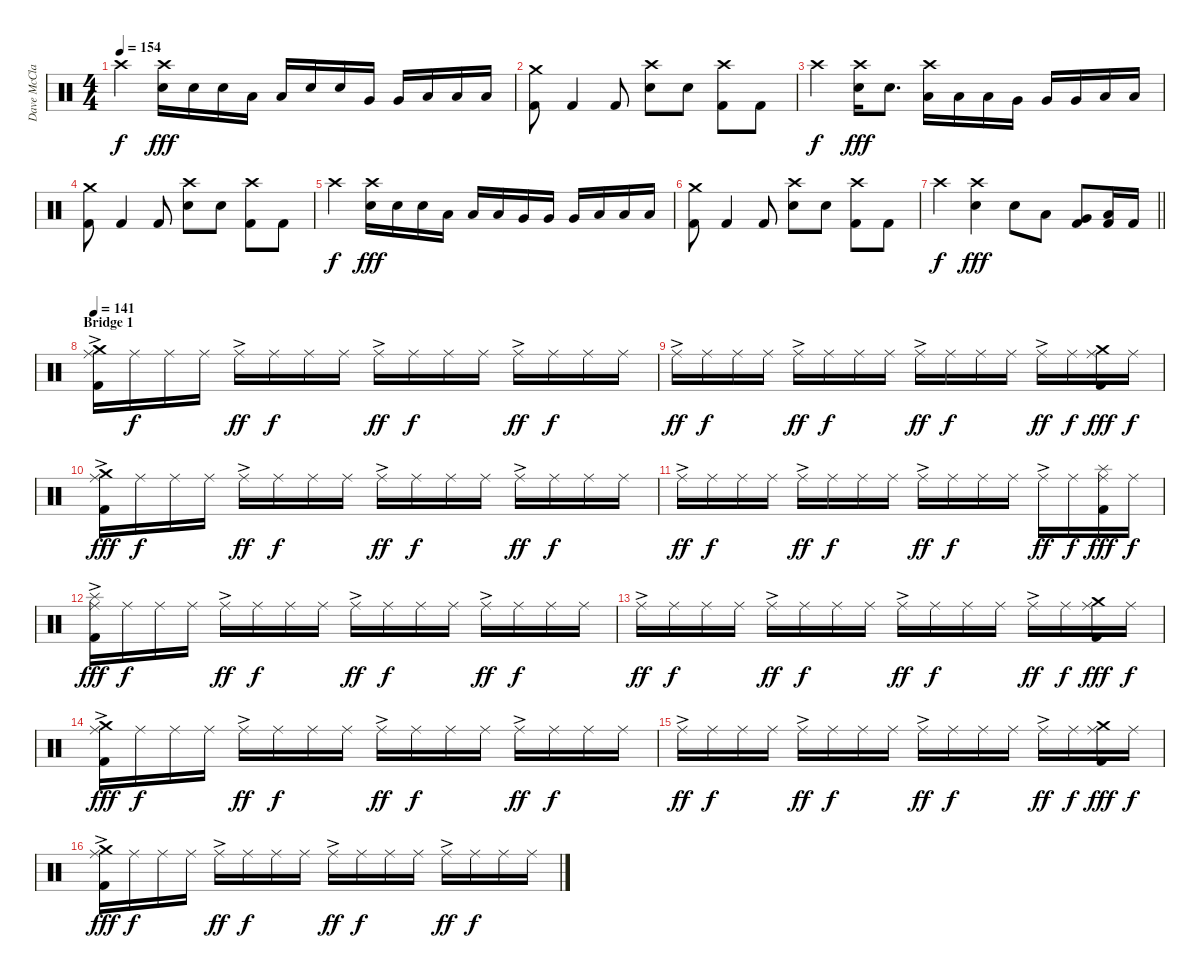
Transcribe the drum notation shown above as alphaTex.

\track ("Dave McClain" "Dave McCla") {instrument percussion}
\staff {score}
\articulation defaults
\ts (4 4)
\tempo 154
\clef neutral
\ks c "Crash high (hit)".4{dy f}
("Crash high (hit)" "Electric Snare (hit)").16{dy fff} "Electric Snare (hit)".16 "Electric Snare (hit)".16 "Low Tom (hit)".16 "Low Tom (hit)".16 "Electric Snare (hit)".16 "Electric Snare (hit)".16 "Very Low Tom (hit)".16 "Very Low Tom (hit)".16 "Low Floor Tom (hit)".16 "Low Floor Tom (hit)".16 "Low Floor Tom (hit)".16 |
("Crash medium (hit)" "Kick (hit) 2").8 "Kick (hit) 2".4 "Kick (hit) 2".8 ("Crash high (hit)" "Electric Snare (hit)").8 "Electric Snare (hit)".8 ("Crash high (hit)" "Kick (hit) 2").8 "Kick (hit) 2".8 |
"Crash high (hit)".4{dy f} ("Crash high (hit)" "Electric Snare (hit)").16{dy fff} "Electric Snare (hit)".8{d} ("Crash high (hit)" "Low Tom (hit)").16 "Low Tom (hit)".16 "Low Tom (hit)".16 "Very Low Tom (hit)".16 "Very Low Tom (hit)".16 "Very Low Tom (hit)".16 "Low Floor Tom (hit)".16 "Low Floor Tom (hit)".16 |
("Crash medium (hit)" "Kick (hit) 2").8 "Kick (hit) 2".4 "Kick (hit) 2".8 ("Crash high (hit)" "Electric Snare (hit)").8 "Electric Snare (hit)".8 ("Crash high (hit)" "Kick (hit) 2").8 "Kick (hit) 2".8 |
"Crash high (hit)".4{dy f} ("Crash high (hit)" "Electric Snare (hit)").16{dy fff} "Electric Snare (hit)".16 "Electric Snare (hit)".16 "Low Tom (hit)".16 "Low Tom (hit)".16 "Low Tom (hit)".16 "Very Low Tom (hit)".16 "Very Low Tom (hit)".16 "Very Low Tom (hit)".16 "Low Floor Tom (hit)".16 "Low Floor Tom (hit)".16 "Low Floor Tom (hit)".16 |
("Crash medium (hit)" "Kick (hit) 2").8 "Kick (hit) 2".4 "Kick (hit) 2".8 ("Crash high (hit)" "Electric Snare (hit)").8 "Electric Snare (hit)".8 ("Crash high (hit)" "Kick (hit) 2").8 "Kick (hit) 2".8 |
\barLineRight lightlight "Crash high (hit)".4{dy f}
("Crash high (hit)" "Electric Snare (hit)").4{dy fff} "Electric Snare (hit)".8 "Low Tom (hit)".8 ("Very Low Tom (hit)" "Kick (hit) 2").8 ("Low Floor Tom (hit)" "Kick (hit) 2").16 "Kick (hit) 2".16 |
\section ("" "Bridge 1")
\tempo 141
("Ride (middle)"{ac} "Crash medium (hit)" "Kick (hit) 2").16 "Ride (middle)".16{dy f} "Ride (middle)".16 "Ride (middle)".16 "Ride (middle)"{ac}.16{dy ff} "Ride (middle)".16{dy f} "Ride (middle)".16 "Ride (middle)".16 "Ride (middle)"{ac}.16{dy ff} "Ride (middle)".16{dy f} "Ride (middle)".16 "Ride (middle)".16 "Ride (middle)"{ac}.16{dy ff} "Ride (middle)".16{dy f} "Ride (middle)".16 "Ride (middle)".16 |
"Ride (middle)"{ac}.16{dy ff} "Ride (middle)".16{dy f} "Ride (middle)".16 "Ride (middle)".16 "Ride (middle)"{ac}.16{dy ff} "Ride (middle)".16{dy f} "Ride (middle)".16 "Ride (middle)".16 "Ride (middle)"{ac}.16{dy ff} "Ride (middle)".16{dy f} "Ride (middle)".16 "Ride (middle)".16 "Ride (middle)"{ac}.16{dy ff} "Ride (middle)".16{dy f} ("Ride (middle)" "Crash medium (hit)" "Kick (hit) 2").16{dy fff} "Ride (middle)".16{dy f} |
("Ride (middle)"{ac} "Crash medium (hit)" "Kick (hit) 2").16{dy fff} "Ride (middle)".16{dy f} "Ride (middle)".16 "Ride (middle)".16 "Ride (middle)"{ac}.16{dy ff} "Ride (middle)".16{dy f} "Ride (middle)".16 "Ride (middle)".16 "Ride (middle)"{ac}.16{dy ff} "Ride (middle)".16{dy f} "Ride (middle)".16 "Ride (middle)".16 "Ride (middle)"{ac}.16{dy ff} "Ride (middle)".16{dy f} "Ride (middle)".16 "Ride (middle)".16 |
"Ride (middle)"{ac}.16{dy ff} "Ride (middle)".16{dy f} "Ride (middle)".16 "Ride (middle)".16 "Ride (middle)"{ac}.16{dy ff} "Ride (middle)".16{dy f} "Ride (middle)".16 "Ride (middle)".16 "Ride (middle)"{ac}.16{dy ff} "Ride (middle)".16{dy f} "Ride (middle)".16 "Ride (middle)".16 "Ride (middle)"{ac}.16{dy ff} "Ride (middle)".16{dy f} ("Ride (middle)" "Splash (hit)" "Kick (hit) 2").16{dy fff} "Ride (middle)".16{dy f} |
("Ride (middle)"{ac} "Splash (hit)" "Kick (hit) 2").16{dy fff} "Ride (middle)".16{dy f} "Ride (middle)".16 "Ride (middle)".16 "Ride (middle)"{ac}.16{dy ff} "Ride (middle)".16{dy f} "Ride (middle)".16 "Ride (middle)".16 "Ride (middle)"{ac}.16{dy ff} "Ride (middle)".16{dy f} "Ride (middle)".16 "Ride (middle)".16 "Ride (middle)"{ac}.16{dy ff} "Ride (middle)".16{dy f} "Ride (middle)".16 "Ride (middle)".16 |
"Ride (middle)"{ac}.16{dy ff} "Ride (middle)".16{dy f} "Ride (middle)".16 "Ride (middle)".16 "Ride (middle)"{ac}.16{dy ff} "Ride (middle)".16{dy f} "Ride (middle)".16 "Ride (middle)".16 "Ride (middle)"{ac}.16{dy ff} "Ride (middle)".16{dy f} "Ride (middle)".16 "Ride (middle)".16 "Ride (middle)"{ac}.16{dy ff} "Ride (middle)".16{dy f} ("Ride (middle)" "Crash medium (hit)" "Kick (hit) 2").16{dy fff} "Ride (middle)".16{dy f} |
("Ride (middle)"{ac} "Crash medium (hit)" "Kick (hit) 2").16{dy fff} "Ride (middle)".16{dy f} "Ride (middle)".16 "Ride (middle)".16 "Ride (middle)"{ac}.16{dy ff} "Ride (middle)".16{dy f} "Ride (middle)".16 "Ride (middle)".16 "Ride (middle)"{ac}.16{dy ff} "Ride (middle)".16{dy f} "Ride (middle)".16 "Ride (middle)".16 "Ride (middle)"{ac}.16{dy ff} "Ride (middle)".16{dy f} "Ride (middle)".16 "Ride (middle)".16 |
"Ride (middle)"{ac}.16{dy ff} "Ride (middle)".16{dy f} "Ride (middle)".16 "Ride (middle)".16 "Ride (middle)"{ac}.16{dy ff} "Ride (middle)".16{dy f} "Ride (middle)".16 "Ride (middle)".16 "Ride (middle)"{ac}.16{dy ff} "Ride (middle)".16{dy f} "Ride (middle)".16 "Ride (middle)".16 "Ride (middle)"{ac}.16{dy ff} "Ride (middle)".16{dy f} ("Ride (middle)" "Crash medium (hit)" "Kick (hit) 2").16{dy fff} "Ride (middle)".16{dy f} |
("Ride (middle)"{ac} "Crash medium (hit)" "Kick (hit) 2").16{dy fff} "Ride (middle)".16{dy f} "Ride (middle)".16 "Ride (middle)".16 "Ride (middle)"{ac}.16{dy ff} "Ride (middle)".16{dy f} "Ride (middle)".16 "Ride (middle)".16 "Ride (middle)"{ac}.16{dy ff} "Ride (middle)".16{dy f} "Ride (middle)".16 "Ride (middle)".16 "Ride (middle)"{ac}.16{dy ff} "Ride (middle)".16{dy f} "Ride (middle)".16 "Ride (middle)".16
